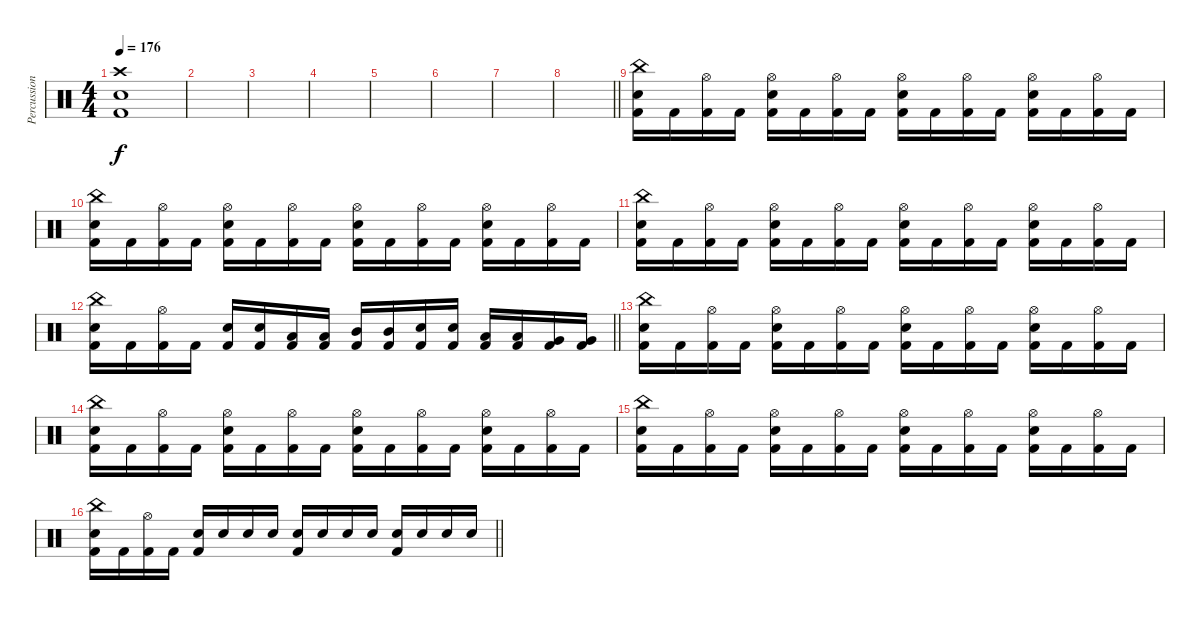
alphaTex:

\track ("Percussion" "Percussion") {instrument percussion}
\staff {score}
\articulation defaults
\ts (4 4)
\tempo 176
\clef neutral
\ks c
("Crash high (hit)" "Electric Snare (hit)" "Kick (hit) 2").1{dy f} |
|
|
|
|
|
|
\barLineRight lightlight
|
("China (hit)" "Electric Snare (hit)" "Kick (hit) 2").16 "Kick (hit) 2".16 ("Hi-Hat (open)" "Kick (hit) 2").16 "Kick (hit) 2".16 ("Hi-Hat (open)" "Electric Snare (hit)" "Kick (hit) 2").16 "Kick (hit) 2".16 ("Hi-Hat (open)" "Kick (hit) 2").16 "Kick (hit) 2".16 ("Hi-Hat (open)" "Electric Snare (hit)" "Kick (hit) 2").16 "Kick (hit) 2".16 ("Hi-Hat (open)" "Kick (hit) 2").16 "Kick (hit) 2".16 ("Hi-Hat (open)" "Electric Snare (hit)" "Kick (hit) 2").16 "Kick (hit) 2".16 ("Hi-Hat (open)" "Kick (hit) 2").16 "Kick (hit) 2".16 |
("China (hit)" "Electric Snare (hit)" "Kick (hit) 2").16 "Kick (hit) 2".16 ("Hi-Hat (open)" "Kick (hit) 2").16 "Kick (hit) 2".16 ("Hi-Hat (open)" "Electric Snare (hit)" "Kick (hit) 2").16 "Kick (hit) 2".16 ("Hi-Hat (open)" "Kick (hit) 2").16 "Kick (hit) 2".16 ("Hi-Hat (open)" "Electric Snare (hit)" "Kick (hit) 2").16 "Kick (hit) 2".16 ("Hi-Hat (open)" "Kick (hit) 2").16 "Kick (hit) 2".16 ("Hi-Hat (open)" "Electric Snare (hit)" "Kick (hit) 2").16 "Kick (hit) 2".16 ("Hi-Hat (open)" "Kick (hit) 2").16 "Kick (hit) 2".16 |
("China (hit)" "Electric Snare (hit)" "Kick (hit) 2").16 "Kick (hit) 2".16 ("Hi-Hat (open)" "Kick (hit) 2").16 "Kick (hit) 2".16 ("Hi-Hat (open)" "Electric Snare (hit)" "Kick (hit) 2").16 "Kick (hit) 2".16 ("Hi-Hat (open)" "Kick (hit) 2").16 "Kick (hit) 2".16 ("Hi-Hat (open)" "Electric Snare (hit)" "Kick (hit) 2").16 "Kick (hit) 2".16 ("Hi-Hat (open)" "Kick (hit) 2").16 "Kick (hit) 2".16 ("Hi-Hat (open)" "Electric Snare (hit)" "Kick (hit) 2").16 "Kick (hit) 2".16 ("Hi-Hat (open)" "Kick (hit) 2").16 "Kick (hit) 2".16 |
\barLineRight lightlight
("China (hit)" "Electric Snare (hit)" "Kick (hit) 2").16 "Kick (hit) 2".16 ("Hi-Hat (open)" "Kick (hit) 2").16 "Kick (hit) 2".16 ("Electric Snare (hit)" "Kick (hit) 2").16 ("Electric Snare (hit)" "Kick (hit) 2").16 ("Low Tom (hit)" "Kick (hit) 2").16 ("Low Tom (hit)" "Kick (hit) 2").16 ("Mid Tom (hit)" "Kick (hit) 2").16 ("Mid Tom (hit)" "Kick (hit) 2").16 ("Electric Snare (hit)" "Kick (hit) 2").16 ("Electric Snare (hit)" "Kick (hit) 2").16 ("Low Tom (hit)" "Kick (hit) 2").16 ("Low Tom (hit)" "Kick (hit) 2").16 ("Very Low Tom (hit)" "Kick (hit) 2").16 ("Very Low Tom (hit)" "Kick (hit) 2").16 |
("China (hit)" "Electric Snare (hit)" "Kick (hit) 2").16 "Kick (hit) 2".16 ("Hi-Hat (open)" "Kick (hit) 2").16 "Kick (hit) 2".16 ("Hi-Hat (open)" "Electric Snare (hit)" "Kick (hit) 2").16 "Kick (hit) 2".16 ("Hi-Hat (open)" "Kick (hit) 2").16 "Kick (hit) 2".16 ("Hi-Hat (open)" "Electric Snare (hit)" "Kick (hit) 2").16 "Kick (hit) 2".16 ("Hi-Hat (open)" "Kick (hit) 2").16 "Kick (hit) 2".16 ("Hi-Hat (open)" "Electric Snare (hit)" "Kick (hit) 2").16 "Kick (hit) 2".16 ("Hi-Hat (open)" "Kick (hit) 2").16 "Kick (hit) 2".16 |
("China (hit)" "Electric Snare (hit)" "Kick (hit) 2").16 "Kick (hit) 2".16 ("Hi-Hat (open)" "Kick (hit) 2").16 "Kick (hit) 2".16 ("Hi-Hat (open)" "Electric Snare (hit)" "Kick (hit) 2").16 "Kick (hit) 2".16 ("Hi-Hat (open)" "Kick (hit) 2").16 "Kick (hit) 2".16 ("Hi-Hat (open)" "Electric Snare (hit)" "Kick (hit) 2").16 "Kick (hit) 2".16 ("Hi-Hat (open)" "Kick (hit) 2").16 "Kick (hit) 2".16 ("Hi-Hat (open)" "Electric Snare (hit)" "Kick (hit) 2").16 "Kick (hit) 2".16 ("Hi-Hat (open)" "Kick (hit) 2").16 "Kick (hit) 2".16 |
("China (hit)" "Electric Snare (hit)" "Kick (hit) 2").16 "Kick (hit) 2".16 ("Hi-Hat (open)" "Kick (hit) 2").16 "Kick (hit) 2".16 ("Hi-Hat (open)" "Electric Snare (hit)" "Kick (hit) 2").16 "Kick (hit) 2".16 ("Hi-Hat (open)" "Kick (hit) 2").16 "Kick (hit) 2".16 ("Hi-Hat (open)" "Electric Snare (hit)" "Kick (hit) 2").16 "Kick (hit) 2".16 ("Hi-Hat (open)" "Kick (hit) 2").16 "Kick (hit) 2".16 ("Hi-Hat (open)" "Electric Snare (hit)" "Kick (hit) 2").16 "Kick (hit) 2".16 ("Hi-Hat (open)" "Kick (hit) 2").16 "Kick (hit) 2".16 |
\barLineRight lightlight
("China (hit)" "Electric Snare (hit)" "Kick (hit) 2").16 "Kick (hit) 2".16 ("Hi-Hat (open)" "Kick (hit) 2").16 "Kick (hit) 2".16 ("Electric Snare (hit)" "Kick (hit) 2").16 "Electric Snare (hit)".16 "Electric Snare (hit)".16 "Electric Snare (hit)".16 ("Electric Snare (hit)" "Kick (hit) 2").16 "Electric Snare (hit)".16 "Electric Snare (hit)".16 "Electric Snare (hit)".16 ("Electric Snare (hit)" "Kick (hit) 2").16 "Electric Snare (hit)".16 "Electric Snare (hit)".16 "Electric Snare (hit)".16
